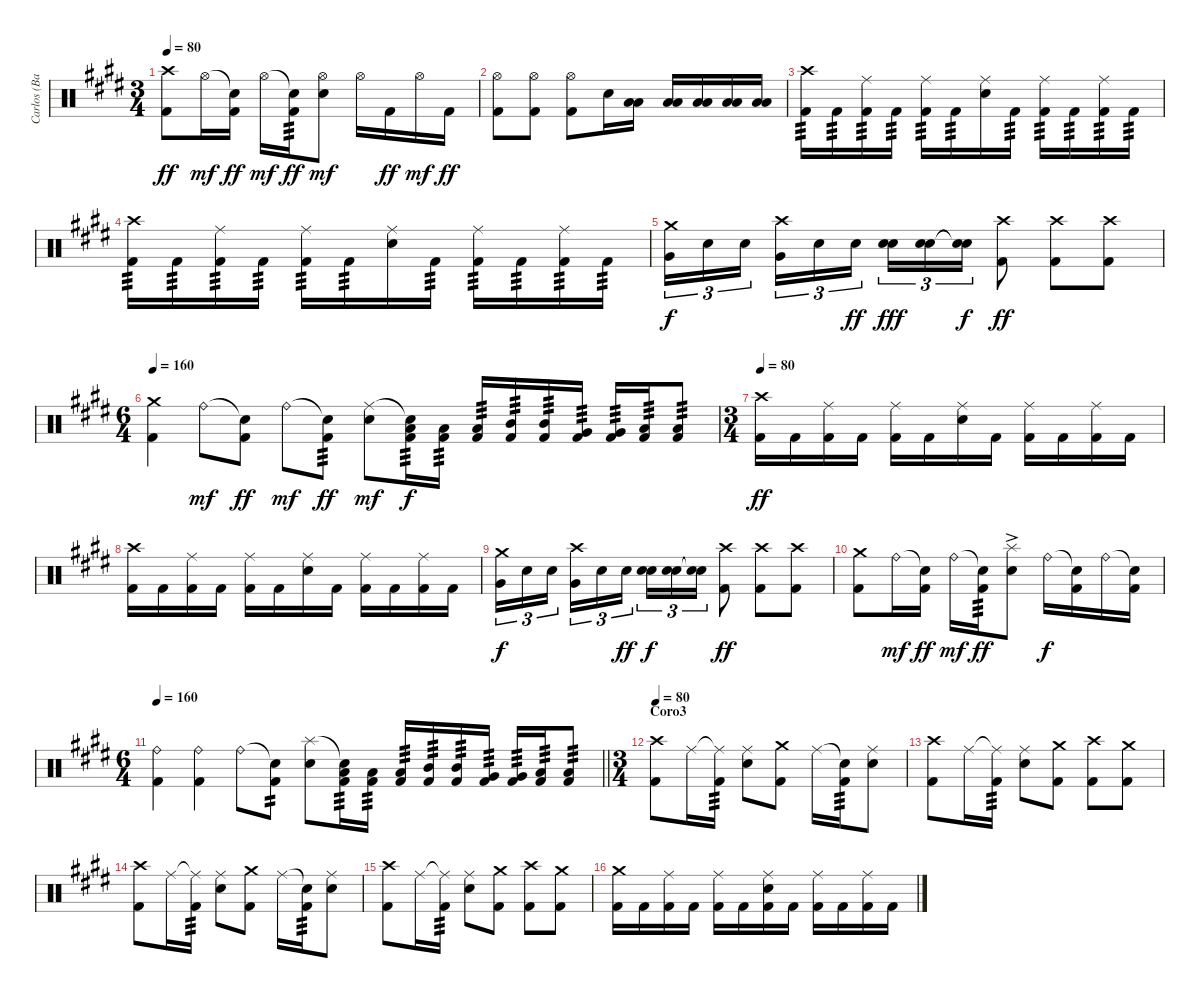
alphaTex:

\track ("Carlos (Batería)" "Carlos (Ba") {instrument percussion}
\staff
\articulation defaults
\ts (3 4)
\tempo 80
\clef neutral
\ks c#minor
("Crash high (hit)" "Kick (hit) 2").8{dy ff} "Hi-Hat (open)".16{dy mf} ("Snare (hit)"{t} "Kick (hit) 2").16{dy ff} "Hi-Hat (open)".16{dy mf} ("Snare (hit)"{t} "Kick (hit) 2").16{tp 3 dy ff} ("Hi-Hat (open)" "Snare (hit) 2").8{dy mf} "Hi-Hat (open)".16 "Kick (hit) 2".16{dy ff} "Hi-Hat (open)".16{dy mf} "Kick (hit) 2".16{dy ff} |
("Hi-Hat (open)" "Kick (hit) 2").8 ("Hi-Hat (open)" "Kick (hit) 2").8 ("Hi-Hat (open)" "Kick (hit) 2").8 "Snare (hit) 2".16 ("Low Floor Tom (hit)" "Low Tom (hit)").16 ("Low Floor Tom (hit)" "Low Tom (hit)").16 ("Low Floor Tom (hit)" "Low Tom (hit)").16 ("Low Floor Tom (hit)" "Low Tom (hit)").16 ("Low Floor Tom (hit)" "Low Tom (hit)").16 |
("Crash high (hit)" "Kick (hit) 2").16{tp 3} "Kick (hit) 2".16{tp 3} ("Ride (middle)" "Kick (hit) 2").16{tp 3} "Kick (hit) 2".16{tp 3} ("Ride (middle)" "Kick (hit) 2").16{tp 3} "Kick (hit) 2".16{tp 3} ("Ride (middle)" "Snare (hit) 2").16 "Kick (hit) 2".16{tp 3} ("Ride (middle)" "Kick (hit) 2").16{tp 3} "Kick (hit) 2".16{tp 3} ("Ride (middle)" "Kick (hit) 2").16{tp 3} "Kick (hit) 2".16{tp 3} |
("Crash high (hit)" "Kick (hit) 2").16{tp 3} "Kick (hit) 2".16{tp 3} ("Ride (middle)" "Kick (hit) 2").16{tp 3} "Kick (hit) 2".16{tp 3} ("Ride (middle)" "Kick (hit) 2").16{tp 3} "Kick (hit) 2".16{tp 3} ("Ride (middle)" "Snare (hit) 2").16 "Kick (hit) 2".16{tp 3} ("Ride (middle)" "Kick (hit) 2").16{tp 3} "Kick (hit) 2".16{tp 3} ("Ride (middle)" "Kick (hit) 2").16{tp 3} "Kick (hit) 2".16{tp 3} |
("Crash medium (hit)" "Very Low Tom (hit)").16{tu (3 2) dy f} "Snare (hit) 2".16{tu (3 2)} "Snare (hit) 2".16{tu (3 2) beam splitsecondary} ("Crash high (hit)" "Very Low Tom (hit)").16{tu (3 2)} "Snare (hit) 2".16{tu (3 2)} "Snare (hit) 2".16{tu (3 2) dy ff} ("Snare (hit) 2" "Snare (hit) 2").16{tu (3 2) dy fff} ("Snare (hit) 2" "Snare (hit) 2").16{tu (3 2)} ("Snare (hit)"{t} "Snare (hit)"{t}).16{tu (3 2) dy f} ("Crash high (hit)" "Kick (hit) 2").8{dy ff} ("Crash high (hit)" "Kick (hit) 2").8 ("Crash high (hit)" "Kick (hit) 2").8 |
\ts (6 4)
\tempo 160
("Crash medium (hit)" "Kick (hit) 2").4 "Ride (bell)".8{dy mf} ("Snare (hit)"{t} "Kick (hit) 2").8{dy ff} "Ride (bell)".8{dy mf} ("Snare (hit)"{t} "Kick (hit) 2").8{tp 3 dy ff} ("Ride (middle)" "Snare (hit) 2").8{dy mf} ("Snare (hit)"{t} "Low Tom (hit)" "Kick (hit) 2").16{tp 3 dy f} ("Low Tom (hit)" "Kick (hit) 2").16{tp 3} ("Low Tom (hit)" "Kick (hit) 2").16{tp 3} ("Mid Tom (hit)" "Kick (hit) 2").16{tp 3} ("Mid Tom (hit)" "Kick (hit) 2").16{tp 3} ("Very Low Tom (hit)" "Kick (hit) 2").16{tp 3} ("Very Low Tom (hit)" "Kick (hit) 2").16{tp 3} ("Low Floor Tom (hit)" "Kick (hit) 2").16{tp 3} ("Low Floor Tom (hit)" "Kick (hit) 2").8{tp 3} |
\ts (3 4)
\tempo 80
("Crash high (hit)" "Kick (hit) 2").16{dy ff} "Kick (hit) 2".16 ("Ride (middle)" "Kick (hit) 2").16 "Kick (hit) 2".16 ("Ride (middle)" "Kick (hit) 2").16 "Kick (hit) 2".16 ("Ride (middle)" "Snare (hit) 2").16 "Kick (hit) 2".16 ("Ride (middle)" "Kick (hit) 2").16 "Kick (hit) 2".16 ("Ride (middle)" "Kick (hit) 2").16 "Kick (hit) 2".16 |
("Crash high (hit)" "Kick (hit) 2").16 "Kick (hit) 2".16 ("Ride (middle)" "Kick (hit) 2").16 "Kick (hit) 2".16 ("Ride (middle)" "Kick (hit) 2").16 "Kick (hit) 2".16 ("Ride (middle)" "Snare (hit) 2").16 "Kick (hit) 2".16 ("Ride (middle)" "Kick (hit) 2").16 "Kick (hit) 2".16 ("Ride (middle)" "Kick (hit) 2").16 "Kick (hit) 2".16 |
("Crash medium (hit)" "Very Low Tom (hit)").16{tu (3 2) dy f} "Snare (hit) 2".16{tu (3 2)} "Snare (hit) 2".16{tu (3 2) beam splitsecondary} ("Crash high (hit)" "Very Low Tom (hit)").16{tu (3 2)} "Snare (hit) 2".16{tu (3 2)} "Snare (hit) 2".16{tu (3 2) dy ff} ("Snare (hit) 2" "Snare (hit) 2").16{tu (3 2) dy f} ("Snare (hit) 2" "Snare (hit) 2").16{tu (3 2)} ("Snare (hit)"{t} "Snare (hit)"{t}).16{tu (3 2)} ("Crash high (hit)" "Kick (hit) 2").8{dy ff} ("Crash high (hit)" "Kick (hit) 2").8 ("Crash high (hit)" "Kick (hit) 2").8 |
("Crash medium (hit)" "Kick (hit) 2").8 "Ride (bell)".16{dy mf} ("Snare (hit)"{t} "Kick (hit) 2").16{dy ff} "Ride (bell)".16{dy mf} ("Snare (hit)"{t} "Kick (hit) 2").16{tp 3 dy ff} ("Splash (hit)" "Snare (hit) 2"{ac}).8 "Ride (bell)".16{dy f} ("Snare (hit)"{t} "Kick (hit) 2").16 "Ride (bell)".16 ("Snare (hit)"{t} "Kick (hit) 2").16 |
\ts (6 4)
\tempo 160
\barLineRight lightlight
("Ride (bell)" "Kick (hit) 2").4 ("Ride (bell)" "Kick (hit) 2").4 "Ride (bell)".8 ("Snare (hit)"{t} "Kick (hit) 2").8{tp 2} ("Splash (hit)" "Snare (hit) 2").8 ("Snare (hit)"{t} "Low Tom (hit)" "Kick (hit) 2").16{tp 3} ("Low Tom (hit)" "Kick (hit) 2").16{tp 3} ("Low Tom (hit)" "Kick (hit) 2").16{tp 3} ("Mid Tom (hit)" "Kick (hit) 2").16{tp 3} ("Mid Tom (hit)" "Kick (hit) 2").16{tp 3} ("Very Low Tom (hit)" "Kick (hit) 2").16{tp 3} ("Very Low Tom (hit)" "Kick (hit) 2").16{tp 3} ("Low Floor Tom (hit)" "Kick (hit) 2").16{tp 3} ("Low Floor Tom (hit)" "Kick (hit) 2").8{tp 3} |
\ts (3 4)
\section ("" "Coro3")
\tempo 80
("Crash high (hit)" "Kick (hit) 2").8 "Ride (middle)".16 ("Ride (middle)"{t} "Kick (hit) 2").16{tp 3} ("Ride (middle)" "Snare (hit) 2").8 ("Crash medium (hit)" "Kick (hit) 2").8 "Ride (middle)".16 ("Snare (hit)"{t} "Kick (hit) 2").16{tp 3} ("Ride (middle)" "Snare (hit) 2").8 |
("Crash high (hit)" "Kick (hit) 2").8 "Ride (middle)".16 ("Ride (middle)"{t} "Kick (hit) 2").16{tp 3} ("Ride (middle)" "Snare (hit) 2").8 ("Crash medium (hit)" "Kick (hit) 2").8 ("Crash high (hit)" "Kick (hit) 2").8 ("Crash medium (hit)" "Kick (hit) 2").8 |
("Crash high (hit)" "Kick (hit) 2").8 "Ride (middle)".16 ("Ride (middle)"{t} "Kick (hit) 2").16{tp 3} ("Ride (middle)" "Snare (hit) 2").8 ("Crash medium (hit)" "Kick (hit) 2").8 "Ride (middle)".16 ("Snare (hit)"{t} "Kick (hit) 2").16{tp 3} ("Ride (middle)" "Snare (hit) 2").8 |
("Crash high (hit)" "Kick (hit) 2").8 "Ride (middle)".16 ("Ride (middle)"{t} "Kick (hit) 2").16{tp 3} ("Ride (middle)" "Snare (hit) 2").8 ("Crash medium (hit)" "Kick (hit) 2").8 ("Crash high (hit)" "Kick (hit) 2").8 ("Crash medium (hit)" "Kick (hit) 2").8 |
("Crash medium (hit)" "Kick (hit) 2").16 "Kick (hit) 2".16 ("Ride (middle)" "Kick (hit) 2").16 "Kick (hit) 2".16 ("Ride (middle)" "Kick (hit) 2").16 "Kick (hit) 2".16 ("Ride (middle)" "Snare (hit) 2" "Kick (hit) 2").16 "Kick (hit) 2".16 ("Ride (middle)" "Kick (hit) 2").16 "Kick (hit) 2".16 ("Ride (middle)" "Kick (hit) 2").16 "Kick (hit) 2".16
